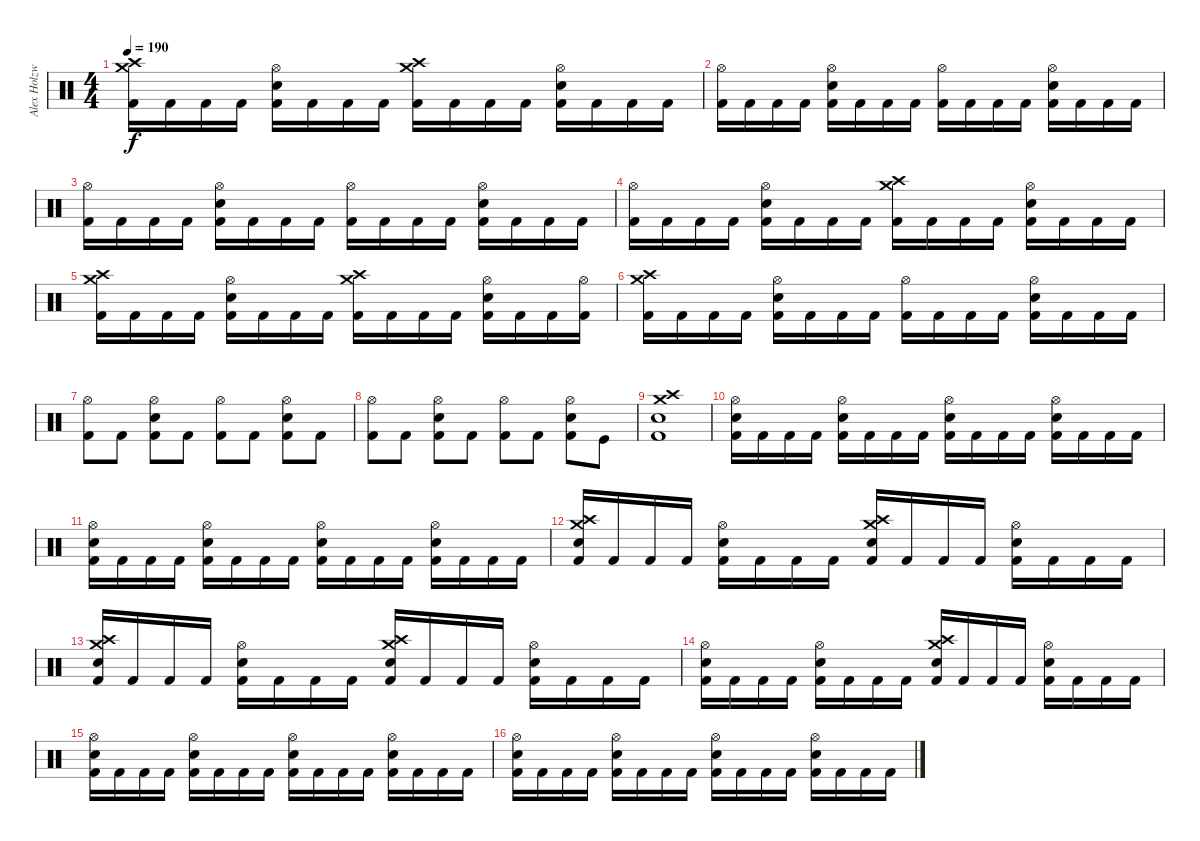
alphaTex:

\track ("Alex Holzwarth" "Alex Holzw") {instrument percussion}
\staff {score}
\articulation defaults
\ts (4 4)
\tempo 190
\clef neutral
\ks c
("Kick (hit) 2" "Crash high (hit)" "Crash medium (hit)").16{dy f} "Kick (hit) 2".16 "Kick (hit) 2".16 "Kick (hit) 2".16 ("Kick (hit) 2" "Electric Snare (hit)" "Hi-Hat (open)").16 "Kick (hit) 2".16 "Kick (hit) 2".16 "Kick (hit) 2".16 ("Kick (hit) 2" "Crash high (hit)" "Crash medium (hit)").16 "Kick (hit) 2".16 "Kick (hit) 2".16 "Kick (hit) 2".16 ("Kick (hit) 2" "Electric Snare (hit)" "Hi-Hat (open)").16 "Kick (hit) 2".16 "Kick (hit) 2".16 "Kick (hit) 2".16 |
("Kick (hit) 2" "Hi-Hat (open)").16 "Kick (hit) 2".16 "Kick (hit) 2".16 "Kick (hit) 2".16 ("Kick (hit) 2" "Electric Snare (hit)" "Hi-Hat (open)").16 "Kick (hit) 2".16 "Kick (hit) 2".16 "Kick (hit) 2".16 ("Kick (hit) 2" "Hi-Hat (open)").16 "Kick (hit) 2".16 "Kick (hit) 2".16 "Kick (hit) 2".16 ("Kick (hit) 2" "Electric Snare (hit)" "Hi-Hat (open)").16 "Kick (hit) 2".16 "Kick (hit) 2".16 "Kick (hit) 2".16 |
("Kick (hit) 2" "Hi-Hat (open)").16 "Kick (hit) 2".16 "Kick (hit) 2".16 "Kick (hit) 2".16 ("Kick (hit) 2" "Electric Snare (hit)" "Hi-Hat (open)").16 "Kick (hit) 2".16 "Kick (hit) 2".16 "Kick (hit) 2".16 ("Kick (hit) 2" "Hi-Hat (open)").16 "Kick (hit) 2".16 "Kick (hit) 2".16 "Kick (hit) 2".16 ("Kick (hit) 2" "Electric Snare (hit)" "Hi-Hat (open)").16 "Kick (hit) 2".16 "Kick (hit) 2".16 "Kick (hit) 2".16 |
("Kick (hit) 2" "Hi-Hat (open)").16 "Kick (hit) 2".16 "Kick (hit) 2".16 "Kick (hit) 2".16 ("Kick (hit) 2" "Electric Snare (hit)" "Hi-Hat (open)").16 "Kick (hit) 2".16 "Kick (hit) 2".16 "Kick (hit) 2".16 ("Kick (hit) 2" "Crash high (hit)" "Crash medium (hit)").16 "Kick (hit) 2".16 "Kick (hit) 2".16 "Kick (hit) 2".16 ("Kick (hit) 2" "Electric Snare (hit)" "Hi-Hat (open)").16 "Kick (hit) 2".16 "Kick (hit) 2".16 "Kick (hit) 2".16 |
("Kick (hit) 2" "Crash medium (hit)" "Crash high (hit)").16 "Kick (hit) 2".16 "Kick (hit) 2".16 "Kick (hit) 2".16 ("Kick (hit) 2" "Electric Snare (hit)" "Hi-Hat (open)").16 "Kick (hit) 2".16 "Kick (hit) 2".16 "Kick (hit) 2".16 ("Kick (hit) 2" "Crash high (hit)" "Crash medium (hit)").16 "Kick (hit) 2".16 "Kick (hit) 2".16 "Kick (hit) 2".16 ("Kick (hit) 2" "Electric Snare (hit)" "Hi-Hat (open)").16 "Kick (hit) 2".16 "Kick (hit) 2".16 ("Kick (hit) 2" "Hi-Hat (open)").16 |
("Kick (hit) 2" "Crash medium (hit)" "Crash high (hit)").16 "Kick (hit) 2".16 "Kick (hit) 2".16 "Kick (hit) 2".16 ("Kick (hit) 2" "Electric Snare (hit)" "Hi-Hat (open)").16 "Kick (hit) 2".16 "Kick (hit) 2".16 "Kick (hit) 2".16 ("Kick (hit) 2" "Hi-Hat (open)").16 "Kick (hit) 2".16 "Kick (hit) 2".16 "Kick (hit) 2".16 ("Kick (hit) 2" "Electric Snare (hit)" "Hi-Hat (open)").16 "Kick (hit) 2".16 "Kick (hit) 2".16 "Kick (hit) 2".16 |
("Kick (hit) 2" "Hi-Hat (open)").8 "Kick (hit) 2".8 ("Kick (hit) 2" "Electric Snare (hit)" "Hi-Hat (open)").8 "Kick (hit) 2".8 ("Kick (hit) 2" "Hi-Hat (open)").8 "Kick (hit) 2".8 ("Kick (hit) 2" "Electric Snare (hit)" "Hi-Hat (open)").8 "Kick (hit) 2".8 |
("Kick (hit) 2" "Hi-Hat (open)").8 "Kick (hit) 2".8 ("Kick (hit) 2" "Electric Snare (hit)" "Hi-Hat (open)").8 "Kick (hit) 2".8 ("Kick (hit) 2" "Hi-Hat (open)").8 "Kick (hit) 2".8 ("Kick (hit) 2" "Electric Snare (hit)" "Hi-Hat (open)").8 "Kick (hit)".8 |
("Kick (hit) 2" "Electric Snare (hit)" "Crash medium (hit)" "Crash high (hit)").1 |
("Kick (hit) 2" "Electric Snare (hit)" "Hi-Hat (open)").16 "Kick (hit) 2".16 "Kick (hit) 2".16 "Kick (hit) 2".16 ("Kick (hit) 2" "Electric Snare (hit)" "Hi-Hat (open)").16 "Kick (hit) 2".16 "Kick (hit) 2".16 "Kick (hit) 2".16 ("Kick (hit) 2" "Electric Snare (hit)" "Hi-Hat (open)").16 "Kick (hit) 2".16 "Kick (hit) 2".16 "Kick (hit) 2".16 ("Kick (hit) 2" "Electric Snare (hit)" "Hi-Hat (open)").16 "Kick (hit) 2".16 "Kick (hit) 2".16 "Kick (hit) 2".16 |
("Kick (hit) 2" "Electric Snare (hit)" "Hi-Hat (open)").16 "Kick (hit) 2".16 "Kick (hit) 2".16 "Kick (hit) 2".16 ("Kick (hit) 2" "Electric Snare (hit)" "Hi-Hat (open)").16 "Kick (hit) 2".16 "Kick (hit) 2".16 "Kick (hit) 2".16 ("Kick (hit) 2" "Electric Snare (hit)" "Hi-Hat (open)").16 "Kick (hit) 2".16 "Kick (hit) 2".16 "Kick (hit) 2".16 ("Kick (hit) 2" "Electric Snare (hit)" "Hi-Hat (open)").16 "Kick (hit) 2".16 "Kick (hit) 2".16 "Kick (hit) 2".16 |
("Kick (hit) 2" "Crash high (hit)" "Electric Snare (hit)" "Crash medium (hit)").16 "Kick (hit) 2".16 "Kick (hit) 2".16 "Kick (hit) 2".16 ("Kick (hit) 2" "Electric Snare (hit)" "Hi-Hat (open)").16 "Kick (hit) 2".16 "Kick (hit) 2".16 "Kick (hit) 2".16 ("Kick (hit) 2" "Crash high (hit)" "Electric Snare (hit)" "Crash medium (hit)").16 "Kick (hit) 2".16 "Kick (hit) 2".16 "Kick (hit) 2".16 ("Kick (hit) 2" "Electric Snare (hit)" "Hi-Hat (open)").16 "Kick (hit) 2".16 "Kick (hit) 2".16 "Kick (hit) 2".16 |
("Kick (hit) 2" "Crash high (hit)" "Electric Snare (hit)" "Crash medium (hit)").16 "Kick (hit) 2".16 "Kick (hit) 2".16 "Kick (hit) 2".16 ("Kick (hit) 2" "Electric Snare (hit)" "Hi-Hat (open)").16 "Kick (hit) 2".16 "Kick (hit) 2".16 "Kick (hit) 2".16 ("Kick (hit) 2" "Crash high (hit)" "Electric Snare (hit)" "Crash medium (hit)").16 "Kick (hit) 2".16 "Kick (hit) 2".16 "Kick (hit) 2".16 ("Kick (hit) 2" "Electric Snare (hit)" "Hi-Hat (open)").16 "Kick (hit) 2".16 "Kick (hit) 2".16 "Kick (hit) 2".16 |
("Kick (hit) 2" "Electric Snare (hit)" "Hi-Hat (open)").16 "Kick (hit) 2".16 "Kick (hit) 2".16 "Kick (hit) 2".16 ("Kick (hit) 2" "Electric Snare (hit)" "Hi-Hat (open)").16 "Kick (hit) 2".16 "Kick (hit) 2".16 "Kick (hit) 2".16 ("Kick (hit) 2" "Crash medium (hit)" "Electric Snare (hit)" "Crash high (hit)").16 "Kick (hit) 2".16 "Kick (hit) 2".16 "Kick (hit) 2".16 ("Kick (hit) 2" "Electric Snare (hit)" "Hi-Hat (open)").16 "Kick (hit) 2".16 "Kick (hit) 2".16 "Kick (hit) 2".16 |
("Kick (hit) 2" "Electric Snare (hit)" "Hi-Hat (open)").16 "Kick (hit) 2".16 "Kick (hit) 2".16 "Kick (hit) 2".16 ("Kick (hit) 2" "Electric Snare (hit)" "Hi-Hat (open)").16 "Kick (hit) 2".16 "Kick (hit) 2".16 "Kick (hit) 2".16 ("Kick (hit) 2" "Electric Snare (hit)" "Hi-Hat (open)").16 "Kick (hit) 2".16 "Kick (hit) 2".16 "Kick (hit) 2".16 ("Kick (hit) 2" "Electric Snare (hit)" "Hi-Hat (open)").16 "Kick (hit) 2".16 "Kick (hit) 2".16 "Kick (hit) 2".16 |
("Kick (hit) 2" "Electric Snare (hit)" "Hi-Hat (open)").16 "Kick (hit) 2".16 "Kick (hit) 2".16 "Kick (hit) 2".16 ("Kick (hit) 2" "Electric Snare (hit)" "Hi-Hat (open)").16 "Kick (hit) 2".16 "Kick (hit) 2".16 "Kick (hit) 2".16 ("Kick (hit) 2" "Electric Snare (hit)" "Hi-Hat (open)").16 "Kick (hit) 2".16 "Kick (hit) 2".16 "Kick (hit) 2".16 ("Kick (hit) 2" "Electric Snare (hit)" "Hi-Hat (open)").16 "Kick (hit) 2".16 "Kick (hit) 2".16 "Kick (hit) 2".16
